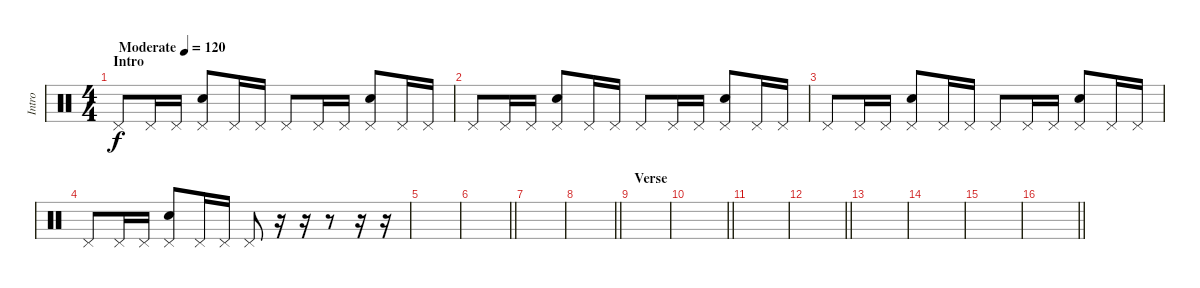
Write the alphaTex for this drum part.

\track ("Intro" "Intro") {instrument percussion}
\staff {score}
\articulation defaults
\ts (4 4)
\section ("" "Intro")
\tempo (120 "Moderate")
\clef neutral
\ks c "Pedal Hi-Hat (hit)".8{dy f volume 8} "Pedal Hi-Hat (hit)".16 "Pedal Hi-Hat (hit)".16
("Pedal Hi-Hat (hit)" "Electric Snare (hit)").8 "Pedal Hi-Hat (hit)".16 "Pedal Hi-Hat (hit)".16 "Pedal Hi-Hat (hit)".8 "Pedal Hi-Hat (hit)".16 "Pedal Hi-Hat (hit)".16 ("Pedal Hi-Hat (hit)" "Electric Snare (hit)").8 "Pedal Hi-Hat (hit)".16 "Pedal Hi-Hat (hit)".16 |
"Pedal Hi-Hat (hit)".8 "Pedal Hi-Hat (hit)".16 "Pedal Hi-Hat (hit)".16 ("Pedal Hi-Hat (hit)" "Electric Snare (hit)").8 "Pedal Hi-Hat (hit)".16 "Pedal Hi-Hat (hit)".16 "Pedal Hi-Hat (hit)".8 "Pedal Hi-Hat (hit)".16 "Pedal Hi-Hat (hit)".16 ("Pedal Hi-Hat (hit)" "Electric Snare (hit)").8 "Pedal Hi-Hat (hit)".16 "Pedal Hi-Hat (hit)".16 |
"Pedal Hi-Hat (hit)".8 "Pedal Hi-Hat (hit)".16 "Pedal Hi-Hat (hit)".16 ("Pedal Hi-Hat (hit)" "Electric Snare (hit)").8 "Pedal Hi-Hat (hit)".16 "Pedal Hi-Hat (hit)".16 "Pedal Hi-Hat (hit)".8 "Pedal Hi-Hat (hit)".16 "Pedal Hi-Hat (hit)".16 ("Pedal Hi-Hat (hit)" "Electric Snare (hit)").8 "Pedal Hi-Hat (hit)".16 "Pedal Hi-Hat (hit)".16 |
"Pedal Hi-Hat (hit)".8 "Pedal Hi-Hat (hit)".16 "Pedal Hi-Hat (hit)".16 ("Pedal Hi-Hat (hit)" "Electric Snare (hit)").8 "Pedal Hi-Hat (hit)".16 "Pedal Hi-Hat (hit)".16 "Pedal Hi-Hat (hit)".8 r.16 r.16 r.8 r.16 r.16 |
|
\barLineRight lightlight
|
|
\barLineRight lightlight
|
\section ("" "Verse")
|
\barLineRight lightlight
|
|
\barLineRight lightlight
|
|
|
|
\barLineRight lightlight
